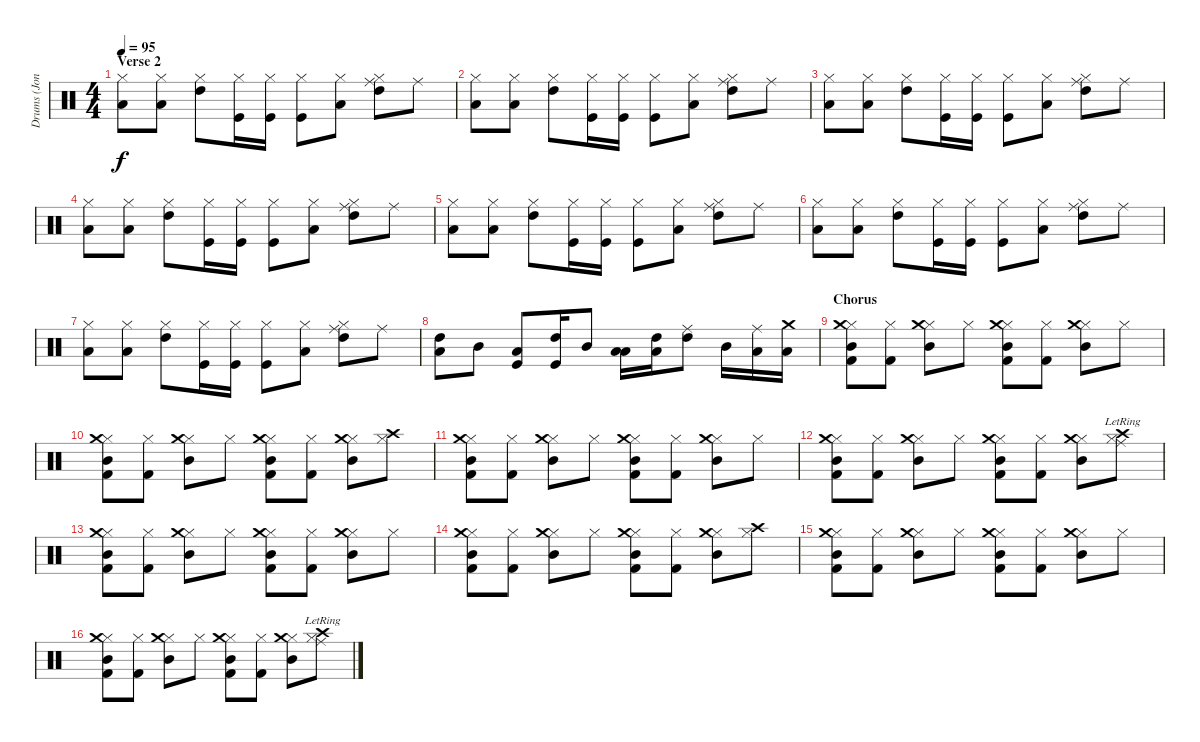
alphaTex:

\track ("Drums (Jon Lee)" "Drums (Jon") {instrument percussion}
\staff {score}
\articulation defaults
\ts (4 4)
\section ("" "Verse 2")
\tempo 95
\clef neutral
\ks c
("Low Floor Tom (hit)" "Hi-Hat (closed)").8{dy f} ("Low Floor Tom (hit)" "Hi-Hat (closed)").8 ("High Tom (hit)" "Hi-Hat (closed)").8 ("Kick (hit)" "Hi-Hat (closed)").16 ("Kick (hit)" "Hi-Hat (closed)").16 ("Kick (hit)" "Hi-Hat (closed)").8 ("Low Floor Tom (hit)" "Hi-Hat (closed)").8 ("High Tom (hit)" "Hi-Hat (closed)" "Ride (middle)").8 "Ride (middle)".8 |
("Low Floor Tom (hit)" "Hi-Hat (closed)").8 ("Low Floor Tom (hit)" "Hi-Hat (closed)").8 ("High Tom (hit)" "Hi-Hat (closed)").8 ("Kick (hit)" "Hi-Hat (closed)").16 ("Kick (hit)" "Hi-Hat (closed)").16 ("Kick (hit)" "Hi-Hat (closed)").8 ("Low Floor Tom (hit)" "Hi-Hat (closed)").8 ("High Tom (hit)" "Hi-Hat (closed)" "Ride (middle)").8 "Ride (middle)".8 |
("Low Floor Tom (hit)" "Hi-Hat (closed)").8 ("Low Floor Tom (hit)" "Hi-Hat (closed)").8 ("High Tom (hit)" "Hi-Hat (closed)").8 ("Kick (hit)" "Hi-Hat (closed)").16 ("Kick (hit)" "Hi-Hat (closed)").16 ("Kick (hit)" "Hi-Hat (closed)").8 ("Low Floor Tom (hit)" "Hi-Hat (closed)").8 ("High Tom (hit)" "Hi-Hat (closed)" "Ride (middle)").8 "Ride (middle)".8 |
("Low Floor Tom (hit)" "Hi-Hat (closed)").8 ("Low Floor Tom (hit)" "Hi-Hat (closed)").8 ("High Tom (hit)" "Hi-Hat (closed)").8 ("Kick (hit)" "Hi-Hat (closed)").16 ("Kick (hit)" "Hi-Hat (closed)").16 ("Kick (hit)" "Hi-Hat (closed)").8 ("Low Floor Tom (hit)" "Hi-Hat (closed)").8 ("High Tom (hit)" "Hi-Hat (closed)" "Ride (middle)").8 "Ride (middle)".8 |
("Low Floor Tom (hit)" "Hi-Hat (closed)").8 ("Low Floor Tom (hit)" "Hi-Hat (closed)").8 ("High Tom (hit)" "Hi-Hat (closed)").8 ("Kick (hit)" "Hi-Hat (closed)").16 ("Kick (hit)" "Hi-Hat (closed)").16 ("Kick (hit)" "Hi-Hat (closed)").8 ("Low Floor Tom (hit)" "Hi-Hat (closed)").8 ("High Tom (hit)" "Hi-Hat (closed)" "Ride (middle)").8 "Ride (middle)".8 |
("Low Floor Tom (hit)" "Hi-Hat (closed)").8 ("Low Floor Tom (hit)" "Hi-Hat (closed)").8 ("High Tom (hit)" "Hi-Hat (closed)").8 ("Kick (hit)" "Hi-Hat (closed)").16 ("Kick (hit)" "Hi-Hat (closed)").16 ("Kick (hit)" "Hi-Hat (closed)").8 ("Low Floor Tom (hit)" "Hi-Hat (closed)").8 ("High Tom (hit)" "Hi-Hat (closed)" "Ride (middle)").8 "Ride (middle)".8 |
("Low Floor Tom (hit)" "Hi-Hat (closed)").8 ("Low Floor Tom (hit)" "Hi-Hat (closed)").8 ("High Tom (hit)" "Hi-Hat (closed)").8 ("Kick (hit)" "Hi-Hat (closed)").16 ("Kick (hit)" "Hi-Hat (closed)").16 ("Kick (hit)" "Hi-Hat (closed)").8 ("Low Floor Tom (hit)" "Hi-Hat (closed)").8 ("High Tom (hit)" "Hi-Hat (closed)" "Ride (middle)").8 "Ride (middle)".8 |
("Low Floor Tom (hit)" "High Tom (hit)").8{volume 16} "Mid Tom (hit)".8 ("Kick (hit)" "Low Floor Tom (hit)").8 ("Kick (hit)" "High Tom (hit)").16 "Mid Tom (hit)".8 ("Low Floor Tom (hit)" "Low Tom (hit)").16 ("High Tom (hit)" "Low Floor Tom (hit)").16 ("Ride (middle)" "High Tom (hit)").8 "Mid Tom (hit)".16 ("Ride (middle)" "Low Tom (hit)").16 ("Crash medium (hit)" "Low Floor Tom (hit)").16 |
\section ("" "Chorus")
("Hi-Hat (closed)" "Crash medium (hit)" "Mid Tom (hit)" "Kick (hit) 2").8{volume 13} ("Hi-Hat (closed)" "Kick (hit) 2").8 ("Hi-Hat (closed)" "Crash medium (hit)" "Mid Tom (hit)").8 "Hi-Hat (closed)".8 ("Hi-Hat (closed)" "Crash medium (hit)" "Mid Tom (hit)" "Kick (hit) 2").8 ("Hi-Hat (closed)" "Kick (hit) 2").8 ("Hi-Hat (closed)" "Crash medium (hit)" "Mid Tom (hit)").8 "Hi-Hat (closed)".8 |
("Hi-Hat (closed)" "Crash medium (hit)" "Mid Tom (hit)" "Kick (hit) 2").8 ("Hi-Hat (closed)" "Kick (hit) 2").8 ("Hi-Hat (closed)" "Crash medium (hit)" "Mid Tom (hit)").8 "Hi-Hat (closed)".8 ("Hi-Hat (closed)" "Crash medium (hit)" "Mid Tom (hit)" "Kick (hit) 2").8 ("Hi-Hat (closed)" "Kick (hit) 2").8 ("Hi-Hat (closed)" "Crash medium (hit)" "Mid Tom (hit)").8 ("Hi-Hat (closed)" "Crash high (hit)").8 |
("Hi-Hat (closed)" "Crash medium (hit)" "Mid Tom (hit)" "Kick (hit) 2").8 ("Hi-Hat (closed)" "Kick (hit) 2").8 ("Hi-Hat (closed)" "Crash medium (hit)" "Mid Tom (hit)").8 "Hi-Hat (closed)".8 ("Hi-Hat (closed)" "Crash medium (hit)" "Mid Tom (hit)" "Kick (hit) 2").8 ("Hi-Hat (closed)" "Kick (hit) 2").8 ("Hi-Hat (closed)" "Crash medium (hit)" "Mid Tom (hit)").8 "Hi-Hat (closed)".8 |
("Hi-Hat (closed)" "Crash medium (hit)" "Mid Tom (hit)" "Kick (hit) 2").8 ("Hi-Hat (closed)" "Kick (hit) 2").8 ("Hi-Hat (closed)" "Crash medium (hit)" "Mid Tom (hit)").8 "Hi-Hat (closed)".8 ("Hi-Hat (closed)" "Crash medium (hit)" "Mid Tom (hit)" "Kick (hit) 2").8 ("Hi-Hat (closed)" "Kick (hit) 2").8 ("Hi-Hat (closed)" "Crash medium (hit)" "Mid Tom (hit)").8 ("Hi-Hat (closed)"{lr} "Ride (middle)"{lr} "Crash high (hit)"{lr}).8 |
("Hi-Hat (closed)" "Crash medium (hit)" "Mid Tom (hit)" "Kick (hit) 2").8{volume 13} ("Hi-Hat (closed)" "Kick (hit) 2").8 ("Hi-Hat (closed)" "Crash medium (hit)" "Mid Tom (hit)").8 "Hi-Hat (closed)".8 ("Hi-Hat (closed)" "Crash medium (hit)" "Mid Tom (hit)" "Kick (hit) 2").8 ("Hi-Hat (closed)" "Kick (hit) 2").8 ("Hi-Hat (closed)" "Crash medium (hit)" "Mid Tom (hit)").8 "Hi-Hat (closed)".8 |
("Hi-Hat (closed)" "Crash medium (hit)" "Mid Tom (hit)" "Kick (hit) 2").8 ("Hi-Hat (closed)" "Kick (hit) 2").8 ("Hi-Hat (closed)" "Crash medium (hit)" "Mid Tom (hit)").8 "Hi-Hat (closed)".8 ("Hi-Hat (closed)" "Crash medium (hit)" "Mid Tom (hit)" "Kick (hit) 2").8 ("Hi-Hat (closed)" "Kick (hit) 2").8 ("Hi-Hat (closed)" "Crash medium (hit)" "Mid Tom (hit)").8 ("Hi-Hat (closed)" "Crash high (hit)").8 |
("Hi-Hat (closed)" "Crash medium (hit)" "Mid Tom (hit)" "Kick (hit) 2").8 ("Hi-Hat (closed)" "Kick (hit) 2").8 ("Hi-Hat (closed)" "Crash medium (hit)" "Mid Tom (hit)").8 "Hi-Hat (closed)".8 ("Hi-Hat (closed)" "Crash medium (hit)" "Mid Tom (hit)" "Kick (hit) 2").8 ("Hi-Hat (closed)" "Kick (hit) 2").8 ("Hi-Hat (closed)" "Crash medium (hit)" "Mid Tom (hit)").8 "Hi-Hat (closed)".8 |
("Hi-Hat (closed)" "Crash medium (hit)" "Mid Tom (hit)" "Kick (hit) 2").8 ("Hi-Hat (closed)" "Kick (hit) 2").8 ("Hi-Hat (closed)" "Crash medium (hit)" "Mid Tom (hit)").8 "Hi-Hat (closed)".8 ("Hi-Hat (closed)" "Crash medium (hit)" "Mid Tom (hit)" "Kick (hit) 2").8 ("Hi-Hat (closed)" "Kick (hit) 2").8 ("Hi-Hat (closed)" "Crash medium (hit)" "Mid Tom (hit)").8 ("Hi-Hat (closed)"{lr} "Ride (middle)"{lr} "Crash high (hit)"{lr}).8
